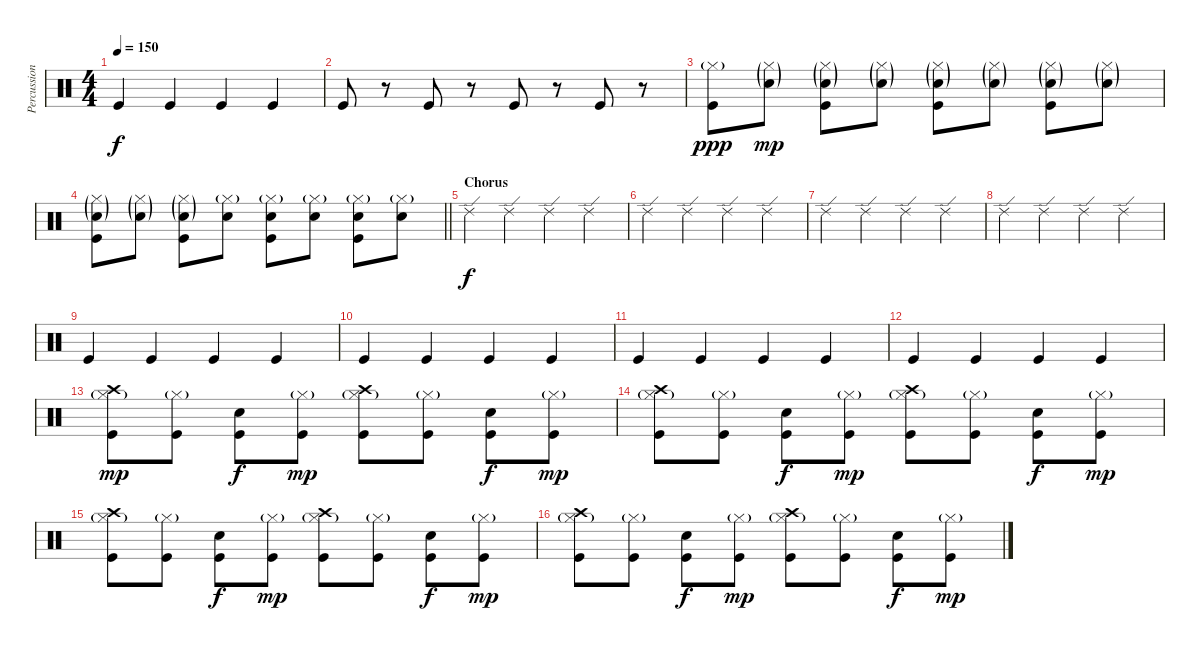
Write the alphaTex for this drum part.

\track ("Percussion" "Percussion") {instrument percussion}
\staff {score}
\articulation defaults
\ts (4 4)
\tempo 150
\clef neutral
\ks c "Kick (hit)".4{dy f} "Kick (hit)".4 "Kick (hit)".4 "Kick (hit)".4
|
"Kick (hit)".8 r.8 "Kick (hit)".8 r.8 "Kick (hit)".8 r.8 "Kick (hit)".8 r.8 |
("Kick (hit)" "Hi-Hat (closed)"{g}).8{dy ppp} ("Snare (hit) 2"{g} "Hi-Hat (closed)"{g}).8{dy mp} ("Kick (hit)" "Snare (hit) 2"{g} "Hi-Hat (closed)"{g}).8 ("Snare (hit) 2"{g} "Hi-Hat (closed)"{g}).8 ("Kick (hit)" "Snare (hit) 2"{g} "Hi-Hat (closed)"{g}).8 ("Snare (hit) 2"{g} "Hi-Hat (closed)"{g}).8 ("Kick (hit)" "Snare (hit) 2"{g} "Hi-Hat (closed)"{g}).8 ("Snare (hit) 2"{g} "Hi-Hat (closed)"{g}).8 |
\barLineRight lightlight
("Kick (hit)" "Snare (hit) 2"{g} "Hi-Hat (closed)"{g}).8 ("Snare (hit) 2"{g} "Hi-Hat (closed)"{g}).8 ("Kick (hit)" "Snare (hit) 2"{g} "Hi-Hat (closed)"{g}).8 ("Snare (hit) 2" "Hi-Hat (closed)"{g}).8 ("Kick (hit)" "Snare (hit) 2" "Hi-Hat (closed)"{g}).8 ("Snare (hit) 2" "Hi-Hat (closed)"{g}).8 ("Kick (hit)" "Snare (hit) 2" "Hi-Hat (closed)"{g}).8 ("Snare (hit) 2" "Hi-Hat (closed)"{g}).8 |
\section ("" "Chorus")
"Ride (edge) 2".4{dy f} "Ride (edge) 2".4 "Ride (edge) 2".4 "Ride (edge) 2".4 |
"Ride (edge) 2".4 "Ride (edge) 2".4 "Ride (edge) 2".4 "Ride (edge) 2".4 |
"Ride (edge) 2".4 "Ride (edge) 2".4 "Ride (edge) 2".4 "Ride (edge) 2".4 |
"Ride (edge) 2".4 "Ride (edge) 2".4 "Ride (edge) 2".4 "Ride (edge) 2".4 |
"Kick (hit)".4 "Kick (hit)".4 "Kick (hit)".4 "Kick (hit)".4 |
"Kick (hit)".4 "Kick (hit)".4 "Kick (hit)".4 "Kick (hit)".4 |
"Kick (hit)".4 "Kick (hit)".4 "Kick (hit)".4 "Kick (hit)".4 |
"Kick (hit)".4 "Kick (hit)".4 "Kick (hit)".4 "Kick (hit)".4 |
("Kick (hit)" "Hi-Hat (closed)"{g} "Crash high (hit)").8{dy mp} ("Kick (hit)" "Hi-Hat (closed)"{g}).8 ("Kick (hit)" "Snare (hit) 2").8{dy f} ("Kick (hit)" "Hi-Hat (closed)"{g}).8{dy mp} ("Kick (hit)" "Hi-Hat (closed)"{g} "Crash high (hit)").8 ("Kick (hit)" "Hi-Hat (closed)"{g}).8 ("Kick (hit)" "Snare (hit) 2").8{dy f} ("Kick (hit)" "Hi-Hat (closed)"{g}).8{dy mp} |
("Kick (hit)" "Hi-Hat (closed)"{g} "Crash high (hit)").8 ("Kick (hit)" "Hi-Hat (closed)"{g}).8 ("Kick (hit)" "Snare (hit) 2").8{dy f} ("Kick (hit)" "Hi-Hat (closed)"{g}).8{dy mp} ("Kick (hit)" "Hi-Hat (closed)"{g} "Crash high (hit)").8 ("Kick (hit)" "Hi-Hat (closed)"{g}).8 ("Kick (hit)" "Snare (hit) 2").8{dy f} ("Kick (hit)" "Hi-Hat (closed)"{g}).8{dy mp} |
("Kick (hit)" "Hi-Hat (closed)"{g} "Crash high (hit)").8 ("Kick (hit)" "Hi-Hat (closed)"{g}).8 ("Kick (hit)" "Snare (hit) 2").8{dy f} ("Kick (hit)" "Hi-Hat (closed)"{g}).8{dy mp} ("Kick (hit)" "Hi-Hat (closed)"{g} "Crash high (hit)").8 ("Kick (hit)" "Hi-Hat (closed)"{g}).8 ("Kick (hit)" "Snare (hit) 2").8{dy f} ("Kick (hit)" "Hi-Hat (closed)"{g}).8{dy mp} |
("Kick (hit)" "Hi-Hat (closed)"{g} "Crash high (hit)").8 ("Kick (hit)" "Hi-Hat (closed)"{g}).8 ("Kick (hit)" "Snare (hit) 2").8{dy f} ("Kick (hit)" "Hi-Hat (closed)"{g}).8{dy mp} ("Kick (hit)" "Hi-Hat (closed)"{g} "Crash high (hit)").8 ("Kick (hit)" "Hi-Hat (closed)"{g}).8 ("Kick (hit)" "Snare (hit) 2").8{dy f} ("Kick (hit)" "Hi-Hat (closed)"{g}).8{dy mp}
